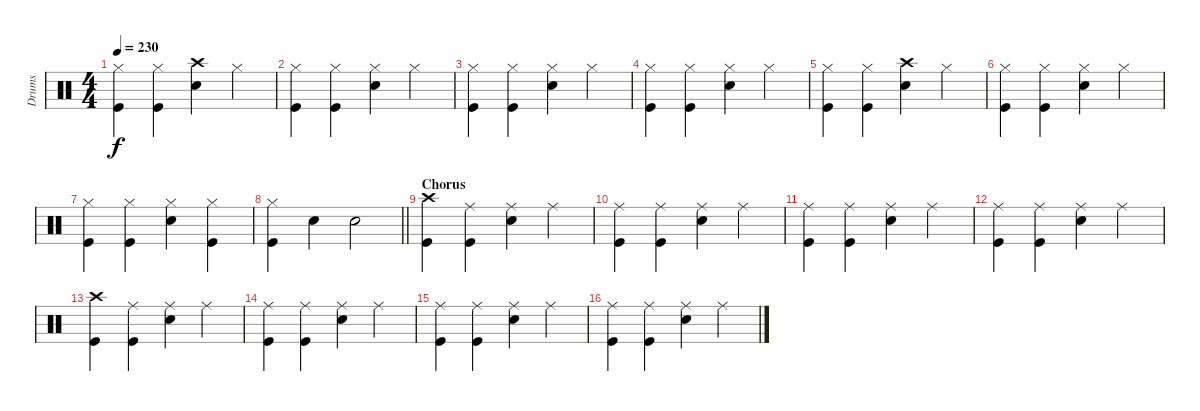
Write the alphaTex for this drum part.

\track ("Drums" "Drums") {instrument percussion}
\staff {score}
\articulation defaults
\ts (4 4)
\tempo 230
\clef neutral
\ks c
("Hi-Hat (closed)" "Kick (hit)").4{dy f} ("Hi-Hat (closed)" "Kick (hit)").4 ("Crash high (hit)" "Snare (hit) 2").4 "Hi-Hat (closed)".4 |
("Hi-Hat (closed)" "Kick (hit)").4 ("Hi-Hat (closed)" "Kick (hit)").4 ("Hi-Hat (closed)" "Snare (hit) 2").4 "Hi-Hat (closed)".4 |
("Hi-Hat (closed)" "Kick (hit)").4 ("Hi-Hat (closed)" "Kick (hit)").4 ("Hi-Hat (closed)" "Snare (hit) 2").4 "Hi-Hat (closed)".4 |
("Hi-Hat (closed)" "Kick (hit)").4 ("Hi-Hat (closed)" "Kick (hit)").4 ("Hi-Hat (closed)" "Snare (hit) 2").4 "Hi-Hat (closed)".4 |
("Hi-Hat (closed)" "Kick (hit)").4 ("Hi-Hat (closed)" "Kick (hit)").4 ("Crash high (hit)" "Snare (hit) 2").4 "Hi-Hat (closed)".4 |
("Hi-Hat (closed)" "Kick (hit)").4 ("Hi-Hat (closed)" "Kick (hit)").4 ("Hi-Hat (closed)" "Snare (hit) 2").4 "Hi-Hat (closed)".4 |
("Hi-Hat (closed)" "Kick (hit)").4 ("Hi-Hat (closed)" "Kick (hit)").4 ("Hi-Hat (closed)" "Snare (hit) 2").4 ("Hi-Hat (closed)" "Kick (hit)").4 |
\barLineRight lightlight
("Hi-Hat (closed)" "Kick (hit)").4 "Snare (hit) 2".4 "Snare (hit) 2".2 |
\section ("" "Chorus")
("Crash high (hit)" "Kick (hit)").4 ("Ride (middle)" "Kick (hit)").4 ("Ride (middle)" "Snare (hit) 2").4 "Ride (middle)".4 |
("Ride (middle)" "Kick (hit)").4 ("Ride (middle)" "Kick (hit)").4 ("Ride (middle)" "Snare (hit) 2").4 "Ride (middle)".4 |
("Ride (middle)" "Kick (hit)").4 ("Ride (middle)" "Kick (hit)").4 ("Ride (middle)" "Snare (hit) 2").4 "Ride (middle)".4 |
("Ride (middle)" "Kick (hit)").4 ("Ride (middle)" "Kick (hit)").4 ("Ride (middle)" "Snare (hit) 2").4 "Ride (middle)".4 |
("Crash high (hit)" "Kick (hit)").4 ("Ride (middle)" "Kick (hit)").4 ("Ride (middle)" "Snare (hit) 2").4 "Ride (middle)".4 |
("Ride (middle)" "Kick (hit)").4 ("Ride (middle)" "Kick (hit)").4 ("Ride (middle)" "Snare (hit) 2").4 "Ride (middle)".4 |
("Ride (middle)" "Kick (hit)").4 ("Ride (middle)" "Kick (hit)").4 ("Ride (middle)" "Snare (hit) 2").4 "Ride (middle)".4 |
("Ride (middle)" "Kick (hit)").4 ("Ride (middle)" "Kick (hit)").4 ("Ride (middle)" "Snare (hit) 2").4 "Ride (middle)".4
